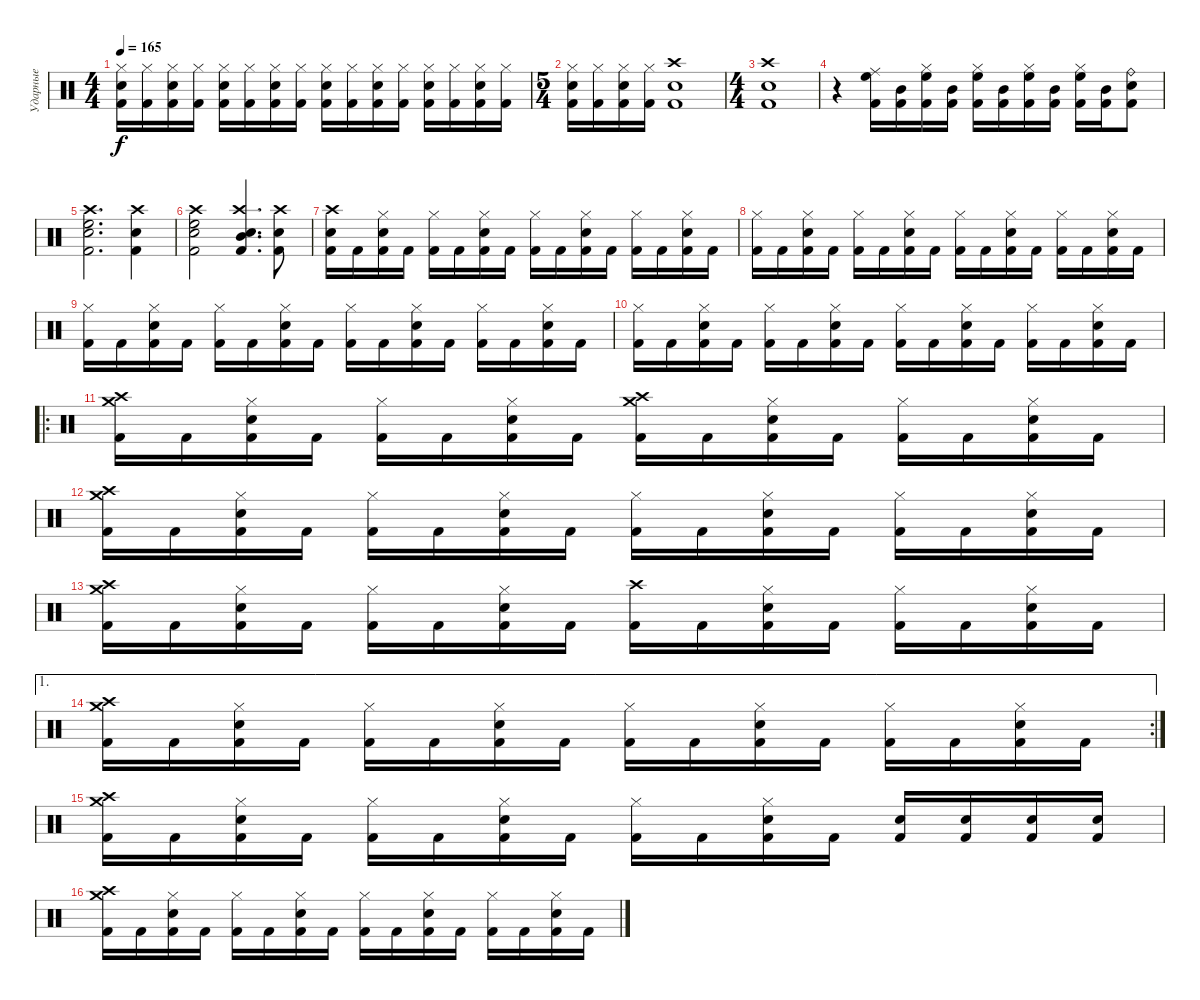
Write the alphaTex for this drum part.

\track ("Ударные" "Ударные") {instrument percussion}
\staff
\articulation defaults
\ts (4 4)
\tempo 165
\clef neutral
\ks c
("Kick (hit) 2" "Snare (hit) 2" "Hi-Hat (closed)").16{dy f} ("Kick (hit) 2" "Hi-Hat (closed)").16 ("Kick (hit) 2" "Snare (hit) 2" "Hi-Hat (closed)").16 ("Kick (hit) 2" "Hi-Hat (closed)").16 ("Kick (hit) 2" "Snare (hit) 2" "Hi-Hat (closed)").16 ("Kick (hit) 2" "Hi-Hat (closed)").16 ("Kick (hit) 2" "Snare (hit) 2" "Hi-Hat (closed)").16 ("Kick (hit) 2" "Hi-Hat (closed)").16 ("Kick (hit) 2" "Snare (hit) 2" "Hi-Hat (closed)").16 ("Kick (hit) 2" "Hi-Hat (closed)").16 ("Kick (hit) 2" "Snare (hit) 2" "Hi-Hat (closed)").16 ("Kick (hit) 2" "Hi-Hat (closed)").16 ("Kick (hit) 2" "Snare (hit) 2" "Hi-Hat (closed)").16 ("Kick (hit) 2" "Hi-Hat (closed)").16 ("Kick (hit) 2" "Snare (hit) 2" "Hi-Hat (closed)").16 ("Kick (hit) 2" "Hi-Hat (closed)").16 |
\ts (5 4)
("Kick (hit) 2" "Snare (hit) 2" "Hi-Hat (closed)").16 ("Kick (hit) 2" "Hi-Hat (closed)").16 ("Kick (hit) 2" "Snare (hit) 2" "Hi-Hat (closed)").16 ("Kick (hit) 2" "Hi-Hat (closed)").16 ("Crash high (hit)" "Snare (hit) 2" "Kick (hit) 2").1 |
\ts (4 4)
("Crash high (hit)" "Snare (hit) 2" "Kick (hit) 2").1 |
r.4 ("Kick (hit) 2" "High Floor Tom (hit)" "Ride (middle)").16 ("Kick (hit) 2" "Mid Tom (hit)").16 ("Kick (hit) 2" "High Floor Tom (hit)" "Hi-Hat (closed)").16 ("Kick (hit) 2" "Mid Tom (hit)").16 ("Kick (hit) 2" "High Floor Tom (hit)" "Hi-Hat (closed)").16 ("Kick (hit) 2" "Mid Tom (hit)").16 ("Kick (hit) 2" "High Floor Tom (hit)" "Hi-Hat (closed)").16 ("Kick (hit) 2" "Mid Tom (hit)").16 ("Kick (hit) 2" "High Floor Tom (hit)" "Hi-Hat (closed)").16 ("Kick (hit) 2" "Mid Tom (hit)").16 ("Ride (bell)" "Snare (hit) 2" "Kick (hit) 2").8 |
("Kick (hit) 2" "Snare (hit) 2" "High Floor Tom (hit)" "Crash high (hit)").2{d} ("Kick (hit) 2" "Snare (hit) 2" "Crash high (hit)").4 |
("Crash high (hit)" "High Floor Tom (hit)" "Snare (hit) 2" "Kick (hit) 2").2 ("Crash high (hit)" "Mid Tom (hit)" "Snare (hit) 2" "Kick (hit) 2").4{d} ("Crash high (hit)" "Kick (hit) 2" "Snare (hit) 2").8 |
("Kick (hit) 2" "Snare (hit) 2" "Crash high (hit)").16 "Kick (hit) 2".16 ("Kick (hit) 2" "Snare (hit) 2" "Hi-Hat (closed)").16 "Kick (hit) 2".16 ("Kick (hit) 2" "Hi-Hat (closed)").16 "Kick (hit) 2".16 ("Kick (hit) 2" "Snare (hit) 2" "Hi-Hat (closed)").16 "Kick (hit) 2".16 ("Kick (hit) 2" "Hi-Hat (closed)").16 "Kick (hit) 2".16 ("Kick (hit) 2" "Snare (hit) 2" "Hi-Hat (closed)").16 "Kick (hit) 2".16 ("Kick (hit) 2" "Hi-Hat (closed)").16 "Kick (hit) 2".16 ("Kick (hit) 2" "Snare (hit) 2" "Hi-Hat (closed)").16 "Kick (hit) 2".16 |
("Kick (hit) 2" "Hi-Hat (closed)").16 "Kick (hit) 2".16 ("Kick (hit) 2" "Snare (hit) 2" "Hi-Hat (closed)").16 "Kick (hit) 2".16 ("Kick (hit) 2" "Hi-Hat (closed)").16 "Kick (hit) 2".16 ("Kick (hit) 2" "Snare (hit) 2" "Hi-Hat (closed)").16 "Kick (hit) 2".16 ("Kick (hit) 2" "Hi-Hat (closed)").16 "Kick (hit) 2".16 ("Kick (hit) 2" "Snare (hit) 2" "Hi-Hat (closed)").16 "Kick (hit) 2".16 ("Kick (hit) 2" "Hi-Hat (closed)").16 "Kick (hit) 2".16 ("Kick (hit) 2" "Snare (hit) 2" "Hi-Hat (closed)").16 "Kick (hit) 2".16 |
("Kick (hit) 2" "Hi-Hat (closed)").16 "Kick (hit) 2".16 ("Kick (hit) 2" "Snare (hit) 2" "Hi-Hat (closed)").16 "Kick (hit) 2".16 ("Kick (hit) 2" "Hi-Hat (closed)").16 "Kick (hit) 2".16 ("Kick (hit) 2" "Snare (hit) 2" "Hi-Hat (closed)").16 "Kick (hit) 2".16 ("Kick (hit) 2" "Hi-Hat (closed)").16 "Kick (hit) 2".16 ("Kick (hit) 2" "Snare (hit) 2" "Hi-Hat (closed)").16 "Kick (hit) 2".16 ("Kick (hit) 2" "Hi-Hat (closed)").16 "Kick (hit) 2".16 ("Kick (hit) 2" "Snare (hit) 2" "Hi-Hat (closed)").16 "Kick (hit) 2".16 |
("Kick (hit) 2" "Hi-Hat (closed)").16 "Kick (hit) 2".16 ("Kick (hit) 2" "Snare (hit) 2" "Hi-Hat (closed)").16 "Kick (hit) 2".16 ("Kick (hit) 2" "Hi-Hat (closed)").16 "Kick (hit) 2".16 ("Kick (hit) 2" "Snare (hit) 2" "Hi-Hat (closed)").16 "Kick (hit) 2".16 ("Kick (hit) 2" "Hi-Hat (closed)").16 "Kick (hit) 2".16 ("Kick (hit) 2" "Snare (hit) 2" "Hi-Hat (closed)").16 "Kick (hit) 2".16 ("Kick (hit) 2" "Hi-Hat (closed)").16 "Kick (hit) 2".16 ("Kick (hit) 2" "Snare (hit) 2" "Hi-Hat (closed)").16 "Kick (hit) 2".16 |
\ro
("Kick (hit) 2" "Crash medium (hit)" "Crash high (hit)").16 "Kick (hit) 2".16 ("Kick (hit) 2" "Snare (hit) 2" "Hi-Hat (closed)").16 "Kick (hit) 2".16 ("Kick (hit) 2" "Hi-Hat (closed)").16 "Kick (hit) 2".16 ("Kick (hit) 2" "Snare (hit) 2" "Hi-Hat (closed)").16 "Kick (hit) 2".16 ("Kick (hit) 2" "Crash medium (hit)" "Crash high (hit)").16 "Kick (hit) 2".16 ("Kick (hit) 2" "Snare (hit) 2" "Hi-Hat (closed)").16 "Kick (hit) 2".16 ("Kick (hit) 2" "Hi-Hat (closed)").16 "Kick (hit) 2".16 ("Kick (hit) 2" "Snare (hit) 2" "Hi-Hat (closed)").16 "Kick (hit) 2".16 |
("Kick (hit) 2" "Crash medium (hit)" "Crash high (hit)").16 "Kick (hit) 2".16 ("Kick (hit) 2" "Snare (hit) 2" "Hi-Hat (closed)").16 "Kick (hit) 2".16 ("Kick (hit) 2" "Hi-Hat (closed)").16 "Kick (hit) 2".16 ("Kick (hit) 2" "Snare (hit) 2" "Hi-Hat (closed)").16 "Kick (hit) 2".16 ("Kick (hit) 2" "Hi-Hat (closed)").16 "Kick (hit) 2".16 ("Kick (hit) 2" "Snare (hit) 2" "Hi-Hat (closed)").16 "Kick (hit) 2".16 ("Kick (hit) 2" "Hi-Hat (closed)").16 "Kick (hit) 2".16 ("Kick (hit) 2" "Snare (hit) 2" "Hi-Hat (closed)").16 "Kick (hit) 2".16 |
("Kick (hit) 2" "Crash medium (hit)" "Crash high (hit)").16 "Kick (hit) 2".16 ("Kick (hit) 2" "Snare (hit) 2" "Hi-Hat (closed)").16 "Kick (hit) 2".16 ("Kick (hit) 2" "Hi-Hat (closed)").16 "Kick (hit) 2".16 ("Kick (hit) 2" "Snare (hit) 2" "Hi-Hat (closed)").16 "Kick (hit) 2".16 ("Kick (hit) 2" "Crash high (hit)").16 "Kick (hit) 2".16 ("Kick (hit) 2" "Snare (hit) 2" "Hi-Hat (closed)").16 "Kick (hit) 2".16 ("Kick (hit) 2" "Hi-Hat (closed)").16 "Kick (hit) 2".16 ("Kick (hit) 2" "Snare (hit) 2" "Hi-Hat (closed)").16 "Kick (hit) 2".16 |
\ae 1
\rc 2
("Kick (hit) 2" "Crash medium (hit)" "Crash high (hit)").16 "Kick (hit) 2".16 ("Kick (hit) 2" "Snare (hit) 2" "Hi-Hat (closed)").16 "Kick (hit) 2".16 ("Kick (hit) 2" "Hi-Hat (closed)").16 "Kick (hit) 2".16 ("Kick (hit) 2" "Snare (hit) 2" "Hi-Hat (closed)").16 "Kick (hit) 2".16 ("Kick (hit) 2" "Hi-Hat (closed)").16 "Kick (hit) 2".16 ("Kick (hit) 2" "Snare (hit) 2" "Hi-Hat (closed)").16 "Kick (hit) 2".16 ("Kick (hit) 2" "Hi-Hat (closed)").16 "Kick (hit) 2".16 ("Kick (hit) 2" "Snare (hit) 2" "Hi-Hat (closed)").16 "Kick (hit) 2".16 |
("Kick (hit) 2" "Crash medium (hit)" "Crash high (hit)").16 "Kick (hit) 2".16 ("Kick (hit) 2" "Snare (hit) 2" "Hi-Hat (closed)").16 "Kick (hit) 2".16 ("Kick (hit) 2" "Hi-Hat (closed)").16 "Kick (hit) 2".16 ("Kick (hit) 2" "Snare (hit) 2" "Hi-Hat (closed)").16 "Kick (hit) 2".16 ("Kick (hit) 2" "Hi-Hat (closed)").16 "Kick (hit) 2".16 ("Kick (hit) 2" "Snare (hit) 2" "Hi-Hat (closed)").16 "Kick (hit) 2".16 ("Kick (hit) 2" "Snare (hit) 2").16 ("Kick (hit) 2" "Snare (hit) 2").16 ("Kick (hit) 2" "Snare (hit) 2").16 ("Kick (hit) 2" "Snare (hit) 2").16 |
("Kick (hit) 2" "Crash medium (hit)" "Crash high (hit)").16 "Kick (hit) 2".16 ("Kick (hit) 2" "Snare (hit) 2" "Hi-Hat (closed)").16 "Kick (hit) 2".16 ("Kick (hit) 2" "Hi-Hat (closed)").16 "Kick (hit) 2".16 ("Kick (hit) 2" "Snare (hit) 2" "Hi-Hat (closed)").16 "Kick (hit) 2".16 ("Kick (hit) 2" "Hi-Hat (closed)").16 "Kick (hit) 2".16 ("Kick (hit) 2" "Snare (hit) 2" "Hi-Hat (closed)").16 "Kick (hit) 2".16 ("Kick (hit) 2" "Hi-Hat (closed)").16 "Kick (hit) 2".16 ("Kick (hit) 2" "Snare (hit) 2" "Hi-Hat (closed)").16 "Kick (hit) 2".16
